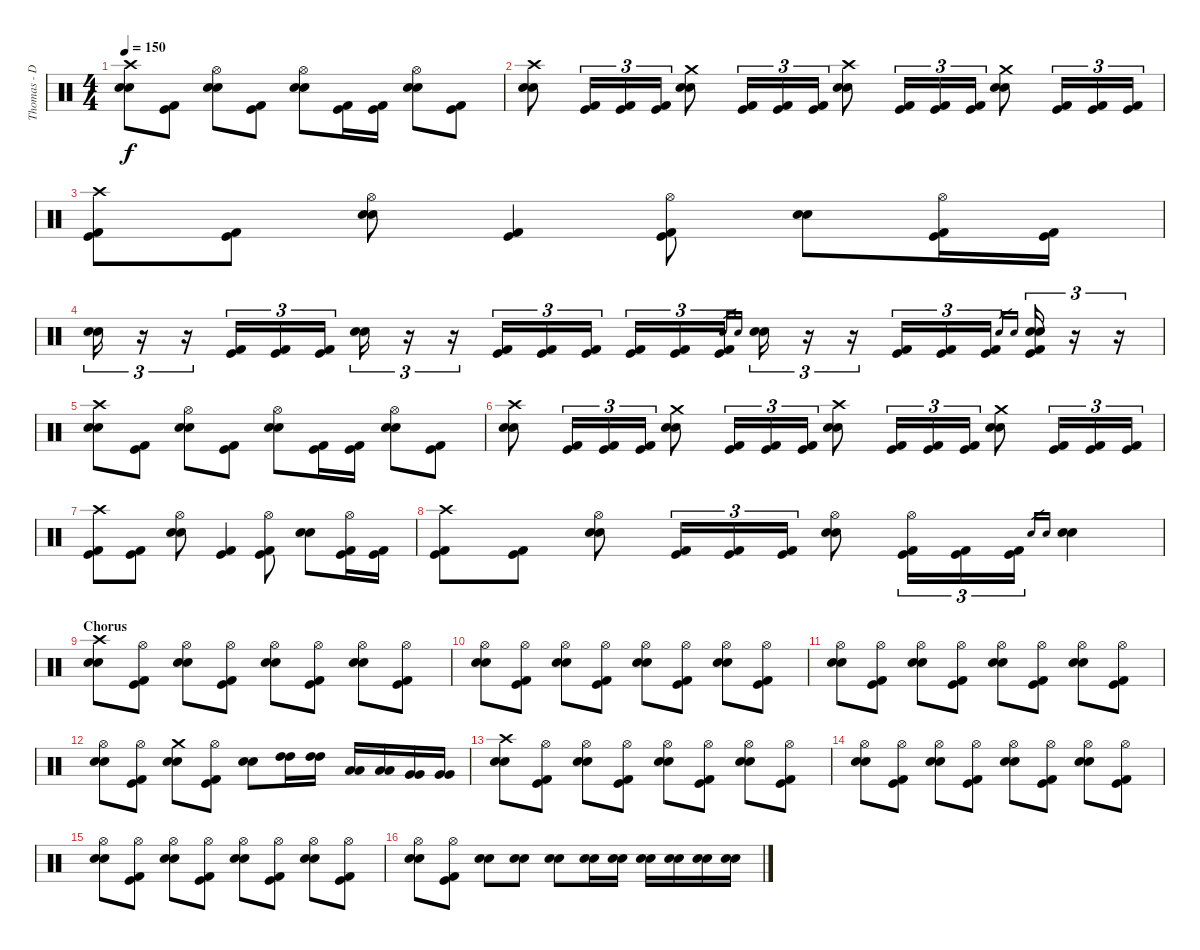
\track ("Thomas - Dr00mz" "Thomas - D") {instrument percussion}
\staff {score}
\articulation defaults
\ts (4 4)
\tempo 150
\clef neutral
\ks c
("Crash high (hit)" "Electric Snare (hit)" "Electric Snare (hit)").8{dy f} ("Kick (hit) 2" "Kick (hit)").8 ("Hi-Hat (open)" "Electric Snare (hit)" "Electric Snare (hit)").8 ("Kick (hit) 2" "Kick (hit)").8 ("Hi-Hat (open)" "Electric Snare (hit)" "Electric Snare (hit)").8 ("Kick (hit) 2" "Kick (hit)").16 ("Kick (hit) 2" "Kick (hit)").16 ("Hi-Hat (open)" "Electric Snare (hit)" "Electric Snare (hit)").8 ("Kick (hit) 2" "Kick (hit)").8 |
("Crash high (hit)" "Electric Snare (hit)" "Electric Snare (hit)").8 ("Kick (hit)" "Kick (hit) 2").16{tu (3 2)} ("Kick (hit)" "Kick (hit) 2").16{tu (3 2)} ("Kick (hit)" "Kick (hit) 2").16{tu (3 2)} ("Crash medium (hit)" "Electric Snare (hit)" "Electric Snare (hit)").8 ("Kick (hit)" "Kick (hit) 2").16{tu (3 2)} ("Kick (hit)" "Kick (hit) 2").16{tu (3 2)} ("Kick (hit)" "Kick (hit) 2").16{tu (3 2)} ("Crash high (hit)" "Electric Snare (hit)" "Electric Snare (hit)").8 ("Kick (hit)" "Kick (hit) 2").16{tu (3 2)} ("Kick (hit)" "Kick (hit) 2").16{tu (3 2)} ("Kick (hit)" "Kick (hit) 2").16{tu (3 2)} ("Crash medium (hit)" "Electric Snare (hit)" "Electric Snare (hit)").8 ("Kick (hit)" "Kick (hit) 2").16{tu (3 2)} ("Kick (hit)" "Kick (hit) 2").16{tu (3 2)} ("Kick (hit)" "Kick (hit) 2").16{tu (3 2)} |
("Crash high (hit)" "Kick (hit)" "Kick (hit) 2").8 ("Kick (hit)" "Kick (hit) 2").8 ("Hi-Hat (open)" "Electric Snare (hit)" "Electric Snare (hit)").8 ("Kick (hit)" "Kick (hit) 2").4 ("Hi-Hat (open)" "Kick (hit)" "Kick (hit) 2").8 ("Electric Snare (hit)" "Electric Snare (hit)").8 ("Hi-Hat (open)" "Kick (hit)" "Kick (hit) 2").16 ("Kick (hit)" "Kick (hit) 2").16 |
("Electric Snare (hit)" "Electric Snare (hit)").16{tu (3 2)} r.16{tu (3 2)} r.16{tu (3 2)} ("Kick (hit)" "Kick (hit) 2").16{tu (3 2)} ("Kick (hit)" "Kick (hit) 2").16{tu (3 2)} ("Kick (hit)" "Kick (hit) 2").16{tu (3 2)} ("Electric Snare (hit)" "Electric Snare (hit)").16{tu (3 2)} r.16{tu (3 2)} r.16{tu (3 2)} ("Kick (hit)" "Kick (hit) 2").16{tu (3 2)} ("Kick (hit)" "Kick (hit) 2").16{tu (3 2)} ("Kick (hit)" "Kick (hit) 2").16{tu (3 2)} ("Kick (hit)" "Kick (hit) 2").16{tu (3 2)} ("Kick (hit)" "Kick (hit) 2").16{tu (3 2)} ("Kick (hit)" "Kick (hit) 2").16{tu (3 2)} "Electric Snare (hit)".16{gr} "Electric Snare (hit)".16{gr} ("Electric Snare (hit)" "Electric Snare (hit)").16{tu (3 2)} r.16{tu (3 2)} r.16{tu (3 2)} ("Kick (hit)" "Kick (hit) 2").16{tu (3 2)} ("Kick (hit)" "Kick (hit) 2").16{tu (3 2)} ("Kick (hit)" "Kick (hit) 2").16{tu (3 2)} "Electric Snare (hit)".16{gr} "Electric Snare (hit)".16{gr} ("Electric Snare (hit)" "Electric Snare (hit)" "Kick (hit)" "Kick (hit) 2").16{tu (3 2)} r.16{tu (3 2)} r.16{tu (3 2)} |
("Crash high (hit)" "Electric Snare (hit)" "Electric Snare (hit)").8 ("Kick (hit) 2" "Kick (hit)").8 ("Hi-Hat (open)" "Electric Snare (hit)" "Electric Snare (hit)").8 ("Kick (hit) 2" "Kick (hit)").8 ("Hi-Hat (open)" "Electric Snare (hit)" "Electric Snare (hit)").8 ("Kick (hit) 2" "Kick (hit)").16 ("Kick (hit) 2" "Kick (hit)").16 ("Hi-Hat (open)" "Electric Snare (hit)" "Electric Snare (hit)").8 ("Kick (hit) 2" "Kick (hit)").8 |
("Crash high (hit)" "Electric Snare (hit)" "Electric Snare (hit)").8 ("Kick (hit)" "Kick (hit) 2").16{tu (3 2)} ("Kick (hit)" "Kick (hit) 2").16{tu (3 2)} ("Kick (hit)" "Kick (hit) 2").16{tu (3 2)} ("Crash medium (hit)" "Electric Snare (hit)" "Electric Snare (hit)").8 ("Kick (hit)" "Kick (hit) 2").16{tu (3 2)} ("Kick (hit)" "Kick (hit) 2").16{tu (3 2)} ("Kick (hit)" "Kick (hit) 2").16{tu (3 2)} ("Crash high (hit)" "Electric Snare (hit)" "Electric Snare (hit)").8 ("Kick (hit)" "Kick (hit) 2").16{tu (3 2)} ("Kick (hit)" "Kick (hit) 2").16{tu (3 2)} ("Kick (hit)" "Kick (hit) 2").16{tu (3 2)} ("Crash medium (hit)" "Electric Snare (hit)" "Electric Snare (hit)").8 ("Kick (hit)" "Kick (hit) 2").16{tu (3 2)} ("Kick (hit)" "Kick (hit) 2").16{tu (3 2)} ("Kick (hit)" "Kick (hit) 2").16{tu (3 2)} |
("Crash high (hit)" "Kick (hit)" "Kick (hit) 2").8 ("Kick (hit)" "Kick (hit) 2").8 ("Hi-Hat (open)" "Electric Snare (hit)" "Electric Snare (hit)").8 ("Kick (hit)" "Kick (hit) 2").4 ("Hi-Hat (open)" "Kick (hit)" "Kick (hit) 2").8 ("Electric Snare (hit)" "Electric Snare (hit)").8 ("Hi-Hat (open)" "Kick (hit)" "Kick (hit) 2").16 ("Kick (hit)" "Kick (hit) 2").16 |
("Crash high (hit)" "Kick (hit) 2" "Kick (hit)").8 ("Kick (hit) 2" "Kick (hit)").8 ("Hi-Hat (open)" "Electric Snare (hit)" "Electric Snare (hit)").8 ("Kick (hit)" "Kick (hit) 2").16{tu (3 2)} ("Kick (hit)" "Kick (hit) 2").16{tu (3 2)} ("Kick (hit)" "Kick (hit) 2").16{tu (3 2)} ("Hi-Hat (open)" "Electric Snare (hit)" "Electric Snare (hit)").8 ("Hi-Hat (open)" "Kick (hit)" "Kick (hit) 2").16{tu (3 2)} ("Kick (hit)" "Kick (hit) 2").16{tu (3 2)} ("Kick (hit)" "Kick (hit) 2").16{tu (3 2)} "Electric Snare (hit)".16{gr} "Electric Snare (hit)".16{gr} ("Electric Snare (hit)" "Electric Snare (hit)").4 |
\section ("" "Chorus")
("Crash high (hit)" "Electric Snare (hit)" "Electric Snare (hit)").8 ("Hi-Hat (open)" "Kick (hit)" "Kick (hit) 2").8 ("Hi-Hat (open)" "Electric Snare (hit)" "Electric Snare (hit)").8 ("Hi-Hat (open)" "Kick (hit)" "Kick (hit) 2").8 ("Hi-Hat (open)" "Electric Snare (hit)" "Electric Snare (hit)").8 ("Hi-Hat (open)" "Kick (hit)" "Kick (hit) 2").8 ("Hi-Hat (open)" "Electric Snare (hit)" "Electric Snare (hit)").8 ("Hi-Hat (open)" "Kick (hit)" "Kick (hit) 2").8 |
("Hi-Hat (open)" "Electric Snare (hit)" "Electric Snare (hit)").8 ("Hi-Hat (open)" "Kick (hit)" "Kick (hit) 2").8 ("Hi-Hat (open)" "Electric Snare (hit)" "Electric Snare (hit)").8 ("Hi-Hat (open)" "Kick (hit)" "Kick (hit) 2").8 ("Hi-Hat (open)" "Electric Snare (hit)" "Electric Snare (hit)").8 ("Hi-Hat (open)" "Kick (hit)" "Kick (hit) 2").8 ("Hi-Hat (open)" "Electric Snare (hit)" "Electric Snare (hit)").8 ("Hi-Hat (open)" "Kick (hit)" "Kick (hit) 2").8 |
("Hi-Hat (open)" "Electric Snare (hit)" "Electric Snare (hit)").8 ("Hi-Hat (open)" "Kick (hit)" "Kick (hit) 2").8 ("Hi-Hat (open)" "Electric Snare (hit)" "Electric Snare (hit)").8 ("Hi-Hat (open)" "Kick (hit)" "Kick (hit) 2").8 ("Hi-Hat (open)" "Electric Snare (hit)" "Electric Snare (hit)").8 ("Hi-Hat (open)" "Kick (hit)" "Kick (hit) 2").8 ("Hi-Hat (open)" "Electric Snare (hit)" "Electric Snare (hit)").8 ("Hi-Hat (open)" "Kick (hit)" "Kick (hit) 2").8 |
("Hi-Hat (open)" "Electric Snare (hit)" "Electric Snare (hit)").8 ("Hi-Hat (open)" "Kick (hit)" "Kick (hit) 2").8 ("Crash medium (hit)" "Electric Snare (hit)" "Electric Snare (hit)").8 ("Hi-Hat (open)" "Kick (hit)" "Kick (hit) 2").8 ("Electric Snare (hit)" "Electric Snare (hit)").8 ("High Tom (hit)" "High Tom (hit)").16 ("High Tom (hit)" "High Tom (hit)").16 ("Low Tom (hit)" "Low Tom (hit)").16 ("Low Tom (hit)" "Low Tom (hit)").16 ("Very Low Tom (hit)" "Very Low Tom (hit)").16 ("Very Low Tom (hit)" "Very Low Tom (hit)").16 |
("Crash high (hit)" "Electric Snare (hit)" "Electric Snare (hit)").8 ("Hi-Hat (open)" "Kick (hit)" "Kick (hit) 2").8 ("Hi-Hat (open)" "Electric Snare (hit)" "Electric Snare (hit)").8 ("Hi-Hat (open)" "Kick (hit)" "Kick (hit) 2").8 ("Hi-Hat (open)" "Electric Snare (hit)" "Electric Snare (hit)").8 ("Hi-Hat (open)" "Kick (hit)" "Kick (hit) 2").8 ("Hi-Hat (open)" "Electric Snare (hit)" "Electric Snare (hit)").8 ("Hi-Hat (open)" "Kick (hit)" "Kick (hit) 2").8 |
("Hi-Hat (open)" "Electric Snare (hit)" "Electric Snare (hit)").8 ("Hi-Hat (open)" "Kick (hit)" "Kick (hit) 2").8 ("Hi-Hat (open)" "Electric Snare (hit)" "Electric Snare (hit)").8 ("Hi-Hat (open)" "Kick (hit)" "Kick (hit) 2").8 ("Hi-Hat (open)" "Electric Snare (hit)" "Electric Snare (hit)").8 ("Hi-Hat (open)" "Kick (hit)" "Kick (hit) 2").8 ("Hi-Hat (open)" "Electric Snare (hit)" "Electric Snare (hit)").8 ("Hi-Hat (open)" "Kick (hit)" "Kick (hit) 2").8 |
("Hi-Hat (open)" "Electric Snare (hit)" "Electric Snare (hit)").8 ("Hi-Hat (open)" "Kick (hit)" "Kick (hit) 2").8 ("Hi-Hat (open)" "Electric Snare (hit)" "Electric Snare (hit)").8 ("Hi-Hat (open)" "Kick (hit)" "Kick (hit) 2").8 ("Hi-Hat (open)" "Electric Snare (hit)" "Electric Snare (hit)").8 ("Hi-Hat (open)" "Kick (hit)" "Kick (hit) 2").8 ("Hi-Hat (open)" "Electric Snare (hit)" "Electric Snare (hit)").8 ("Hi-Hat (open)" "Kick (hit)" "Kick (hit) 2").8 |
("Hi-Hat (open)" "Electric Snare (hit)" "Electric Snare (hit)").8 ("Hi-Hat (open)" "Kick (hit)" "Kick (hit) 2").8 ("Electric Snare (hit)" "Electric Snare (hit)").8 ("Electric Snare (hit)" "Electric Snare (hit)").8 ("Electric Snare (hit)" "Electric Snare (hit)").8 ("Electric Snare (hit)" "Electric Snare (hit)").16 ("Electric Snare (hit)" "Electric Snare (hit)").16 ("Electric Snare (hit)" "Electric Snare (hit)").16 ("Electric Snare (hit)" "Electric Snare (hit)").16 ("Electric Snare (hit)" "Electric Snare (hit)").16 ("Electric Snare (hit)" "Electric Snare (hit)").16
